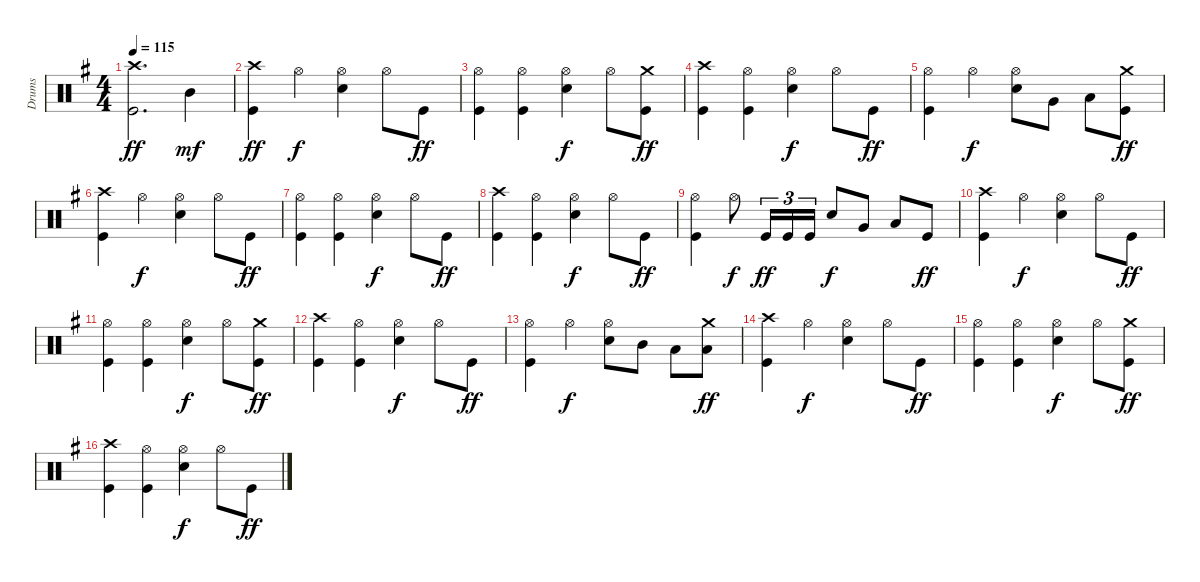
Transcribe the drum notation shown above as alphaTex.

\track ("Drums" "Drums") {instrument percussion}
\staff {score}
\articulation defaults
\ts (4 4)
\tempo 115
\clef neutral
\ks g
("Crash high (hit)" "Kick (hit)").2{d dy ff} "Mid Tom (hit)".4{dy mf} |
("Crash high (hit)" "Kick (hit)").4{dy ff} "Hi-Hat (open)".4{dy f} ("Hi-Hat (open)" "Electric Snare (hit)").4 "Hi-Hat (open)".8 "Kick (hit)".8{dy ff} |
("Hi-Hat (open)" "Kick (hit)").4 ("Hi-Hat (open)" "Kick (hit)").4 ("Hi-Hat (open)" "Electric Snare (hit)").4{dy f} "Hi-Hat (open)".8 ("Crash medium (hit)" "Kick (hit)").8{dy ff} |
("Crash high (hit)" "Kick (hit)").4 ("Hi-Hat (open)" "Kick (hit)").4 ("Hi-Hat (open)" "Electric Snare (hit)").4{dy f} "Hi-Hat (open)".8 "Kick (hit)".8{dy ff} |
("Hi-Hat (open)" "Kick (hit)").4 "Hi-Hat (open)".4{dy f} ("Hi-Hat (open)" "Electric Snare (hit)").8 "Very Low Tom (hit)".8 "Low Floor Tom (hit)".8 ("Crash medium (hit)" "Kick (hit)").8{dy ff} |
("Crash high (hit)" "Kick (hit)").4 "Hi-Hat (open)".4{dy f} ("Hi-Hat (open)" "Electric Snare (hit)").4 "Hi-Hat (open)".8 "Kick (hit)".8{dy ff} |
("Hi-Hat (open)" "Kick (hit)").4 ("Hi-Hat (open)" "Kick (hit)").4 ("Hi-Hat (open)" "Electric Snare (hit)").4{dy f} "Hi-Hat (open)".8 "Kick (hit)".8{dy ff} |
("Crash high (hit)" "Kick (hit)").4 ("Hi-Hat (open)" "Kick (hit)").4 ("Hi-Hat (open)" "Electric Snare (hit)").4{dy f} "Hi-Hat (open)".8 "Kick (hit)".8{dy ff} |
("Hi-Hat (open)" "Kick (hit)").4 "Hi-Hat (open)".8{dy f} "Kick (hit)".16{tu (3 2) dy ff} "Kick (hit)".16{tu (3 2)} "Kick (hit)".16{tu (3 2)} "Electric Snare (hit)".8{dy f} "Very Low Tom (hit)".8 "Low Floor Tom (hit)".8 "Kick (hit)".8{dy ff} |
("Crash high (hit)" "Kick (hit)").4 "Hi-Hat (open)".4{dy f} ("Hi-Hat (open)" "Electric Snare (hit)").4 "Hi-Hat (open)".8 "Kick (hit)".8{dy ff} |
("Hi-Hat (open)" "Kick (hit)").4 ("Hi-Hat (open)" "Kick (hit)").4 ("Hi-Hat (open)" "Electric Snare (hit)").4{dy f} "Hi-Hat (open)".8 ("Crash medium (hit)" "Kick (hit)").8{dy ff} |
("Crash high (hit)" "Kick (hit)").4 ("Hi-Hat (open)" "Kick (hit)").4 ("Hi-Hat (open)" "Electric Snare (hit)").4{dy f} "Hi-Hat (open)".8 "Kick (hit)".8{dy ff} |
("Hi-Hat (open)" "Kick (hit)").4 "Hi-Hat (open)".4{dy f} ("Hi-Hat (open)" "Electric Snare (hit)").8 "Mid Tom (hit)".8 "Low Tom (hit)".8 ("Crash medium (hit)" "Low Floor Tom (hit)").8{dy ff} |
("Crash high (hit)" "Kick (hit)").4 "Hi-Hat (open)".4{dy f} ("Hi-Hat (open)" "Electric Snare (hit)").4 "Hi-Hat (open)".8 "Kick (hit)".8{dy ff} |
("Hi-Hat (open)" "Kick (hit)").4 ("Hi-Hat (open)" "Kick (hit)").4 ("Hi-Hat (open)" "Electric Snare (hit)").4{dy f} "Hi-Hat (open)".8 ("Crash medium (hit)" "Kick (hit)").8{dy ff} |
("Crash high (hit)" "Kick (hit)").4 ("Hi-Hat (open)" "Kick (hit)").4 ("Hi-Hat (open)" "Electric Snare (hit)").4{dy f} "Hi-Hat (open)".8 "Kick (hit)".8{dy ff}
